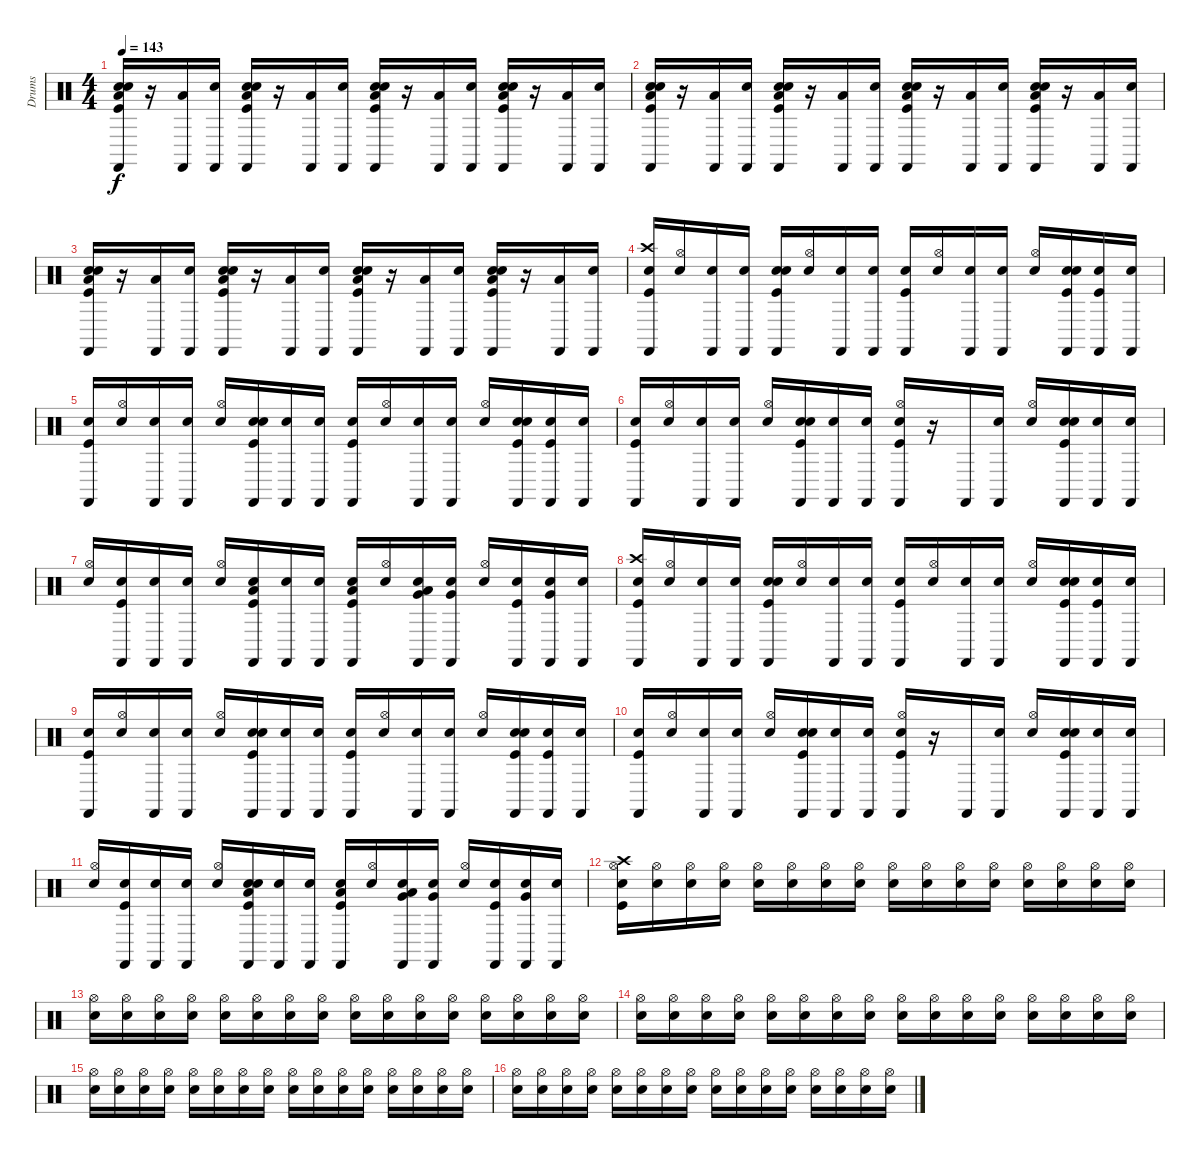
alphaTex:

\track ("Drums" "Drums") {instrument percussion}
\staff {score}
\articulation defaults
\ts (4 4)
\tempo 143
\clef neutral
\ks c
("Snare (hit)" "Low Tom (hit)" "Electric Snare (hit)" "Kick (hit)" "Castanets (hit)").16{dy f} r.16 ("Low Tom (hit)" "Castanets (hit)").16 ("Snare (hit)" "Castanets (hit)").16 ("Snare (hit)" "Low Tom (hit)" "Electric Snare (hit)" "Kick (hit)" "Castanets (hit)").16 r.16 ("Low Tom (hit)" "Castanets (hit)").16 ("Snare (hit)" "Castanets (hit)").16 ("Snare (hit)" "Low Tom (hit)" "Electric Snare (hit)" "Kick (hit)" "Castanets (hit)").16 r.16 ("Low Tom (hit)" "Castanets (hit)").16 ("Snare (hit)" "Castanets (hit)").16 ("Snare (hit)" "Low Tom (hit)" "Electric Snare (hit)" "Kick (hit)" "Castanets (hit)").16 r.16 ("Low Tom (hit)" "Castanets (hit)").16 ("Snare (hit)" "Castanets (hit)").16 |
("Snare (hit)" "Low Tom (hit)" "Electric Snare (hit)" "Kick (hit)" "Castanets (hit)").16 r.16 ("Low Tom (hit)" "Castanets (hit)").16 ("Snare (hit)" "Castanets (hit)").16 ("Snare (hit)" "Low Tom (hit)" "Electric Snare (hit)" "Kick (hit)" "Castanets (hit)").16 r.16 ("Low Tom (hit)" "Castanets (hit)").16 ("Snare (hit)" "Castanets (hit)").16 ("Snare (hit)" "Low Tom (hit)" "Electric Snare (hit)" "Kick (hit)" "Castanets (hit)").16 r.16 ("Low Tom (hit)" "Castanets (hit)").16 ("Snare (hit)" "Castanets (hit)").16 ("Snare (hit)" "Low Tom (hit)" "Electric Snare (hit)" "Kick (hit)" "Castanets (hit)").16 r.16 ("Low Tom (hit)" "Castanets (hit)").16 ("Snare (hit)" "Castanets (hit)").16 |
("Snare (hit)" "Low Tom (hit)" "Electric Snare (hit)" "Kick (hit)" "Castanets (hit)").16 r.16 ("Low Tom (hit)" "Castanets (hit)").16 ("Snare (hit)" "Castanets (hit)").16 ("Snare (hit)" "Low Tom (hit)" "Electric Snare (hit)" "Kick (hit)" "Castanets (hit)").16 r.16 ("Low Tom (hit)" "Castanets (hit)").16 ("Snare (hit)" "Castanets (hit)").16 ("Snare (hit)" "Low Tom (hit)" "Electric Snare (hit)" "Kick (hit)" "Castanets (hit)").16 r.16 ("Low Tom (hit)" "Castanets (hit)").16 ("Snare (hit)" "Castanets (hit)").16 ("Snare (hit)" "Low Tom (hit)" "Electric Snare (hit)" "Kick (hit)" "Castanets (hit)").16 r.16 ("Low Tom (hit)" "Castanets (hit)").16 ("Snare (hit)" "Castanets (hit)").16 |
("Snare (hit)" "Kick (hit)" "Crash high (hit)" "Castanets (hit)").16 ("Snare (hit)" "Hi-Hat (open)").16 ("Snare (hit)" "Castanets (hit)").16 ("Snare (hit)" "Castanets (hit)").16 ("Snare (hit)" "Electric Snare (hit)" "Kick (hit)" "Castanets (hit)").16 ("Snare (hit)" "Hi-Hat (open)").16 ("Snare (hit)" "Castanets (hit)").16 ("Snare (hit)" "Castanets (hit)").16 ("Snare (hit)" "Kick (hit)" "Castanets (hit)").16 ("Snare (hit)" "Hi-Hat (open)").16 ("Snare (hit)" "Castanets (hit)").16 ("Snare (hit)" "Castanets (hit)").16 ("Snare (hit)" "Hi-Hat (open)").16 ("Snare (hit)" "Electric Snare (hit)" "Kick (hit)" "Castanets (hit)").16 ("Snare (hit)" "Kick (hit)" "Castanets (hit)").16 ("Snare (hit)" "Castanets (hit)").16 |
("Snare (hit)" "Kick (hit)" "Castanets (hit)").16 ("Snare (hit)" "Hi-Hat (open)").16 ("Snare (hit)" "Castanets (hit)").16 ("Snare (hit)" "Castanets (hit)").16 ("Snare (hit)" "Hi-Hat (open)").16 ("Snare (hit)" "Electric Snare (hit)" "Kick (hit)" "Castanets (hit)").16 ("Snare (hit)" "Castanets (hit)").16 ("Snare (hit)" "Castanets (hit)").16 ("Snare (hit)" "Kick (hit)" "Castanets (hit)").16 ("Snare (hit)" "Hi-Hat (open)").16 ("Snare (hit)" "Castanets (hit)").16 ("Snare (hit)" "Castanets (hit)").16 ("Snare (hit)" "Hi-Hat (open)").16 ("Snare (hit)" "Electric Snare (hit)" "Kick (hit)" "Castanets (hit)").16 ("Snare (hit)" "Kick (hit)" "Castanets (hit)").16 ("Snare (hit)" "Castanets (hit)").16 |
("Snare (hit)" "Kick (hit)" "Castanets (hit)").16 ("Snare (hit)" "Hi-Hat (open)").16 ("Snare (hit)" "Castanets (hit)").16 ("Snare (hit)" "Castanets (hit)").16 ("Snare (hit)" "Hi-Hat (open)").16 ("Snare (hit)" "Electric Snare (hit)" "Kick (hit)" "Castanets (hit)").16 ("Snare (hit)" "Castanets (hit)").16 ("Snare (hit)" "Castanets (hit)").16 ("Snare (hit)" "Kick (hit)" "Castanets (hit)" "Hi-Hat (open)").16 r.16 "Castanets (hit)".16 ("Snare (hit)" "Castanets (hit)").16 ("Snare (hit)" "Hi-Hat (open)").16 ("Snare (hit)" "Electric Snare (hit)" "Kick (hit)" "Castanets (hit)").16 ("Snare (hit)" "Castanets (hit)").16 ("Snare (hit)" "Castanets (hit)").16 |
("Snare (hit)" "Hi-Hat (open)").16 ("Snare (hit)" "Kick (hit)" "Castanets (hit)").16 ("Snare (hit)" "Castanets (hit)").16 ("Snare (hit)" "Castanets (hit)").16 ("Snare (hit)" "Hi-Hat (open)").16 ("Snare (hit)" "Kick (hit)" "Low Tom (hit)" "Castanets (hit)").16 ("Snare (hit)" "Castanets (hit)").16 ("Snare (hit)" "Castanets (hit)").16 ("Snare (hit)" "Kick (hit)" "Low Tom (hit)" "Castanets (hit)").16 ("Snare (hit)" "Hi-Hat (open)").16 ("Snare (hit)" "Very Low Tom (hit)" "Low Tom (hit)" "Castanets (hit)").16 ("Snare (hit)" "Very Low Tom (hit)" "Castanets (hit)").16 ("Snare (hit)" "Hi-Hat (open)").16 ("Snare (hit)" "Kick (hit)" "Castanets (hit)").16 ("Snare (hit)" "Very Low Tom (hit)" "Castanets (hit)").16 ("Snare (hit)" "Castanets (hit)").16 |
("Snare (hit)" "Kick (hit)" "Crash high (hit)" "Castanets (hit)").16 ("Snare (hit)" "Hi-Hat (open)").16 ("Snare (hit)" "Castanets (hit)").16 ("Snare (hit)" "Castanets (hit)").16 ("Snare (hit)" "Electric Snare (hit)" "Kick (hit)" "Castanets (hit)").16 ("Snare (hit)" "Hi-Hat (open)").16 ("Snare (hit)" "Castanets (hit)").16 ("Snare (hit)" "Castanets (hit)").16 ("Snare (hit)" "Kick (hit)" "Castanets (hit)").16 ("Snare (hit)" "Hi-Hat (open)").16 ("Snare (hit)" "Castanets (hit)").16 ("Snare (hit)" "Castanets (hit)").16 ("Snare (hit)" "Hi-Hat (open)").16 ("Snare (hit)" "Electric Snare (hit)" "Kick (hit)" "Castanets (hit)").16 ("Snare (hit)" "Kick (hit)" "Castanets (hit)").16 ("Snare (hit)" "Castanets (hit)").16 |
("Snare (hit)" "Kick (hit)" "Castanets (hit)").16 ("Snare (hit)" "Hi-Hat (open)").16 ("Snare (hit)" "Castanets (hit)").16 ("Snare (hit)" "Castanets (hit)").16 ("Snare (hit)" "Hi-Hat (open)").16 ("Snare (hit)" "Electric Snare (hit)" "Kick (hit)" "Castanets (hit)").16 ("Snare (hit)" "Castanets (hit)").16 ("Snare (hit)" "Castanets (hit)").16 ("Snare (hit)" "Kick (hit)" "Castanets (hit)").16 ("Snare (hit)" "Hi-Hat (open)").16 ("Snare (hit)" "Castanets (hit)").16 ("Snare (hit)" "Castanets (hit)").16 ("Snare (hit)" "Hi-Hat (open)").16 ("Snare (hit)" "Electric Snare (hit)" "Kick (hit)" "Castanets (hit)").16 ("Snare (hit)" "Kick (hit)" "Castanets (hit)").16 ("Snare (hit)" "Castanets (hit)").16 |
("Snare (hit)" "Kick (hit)" "Castanets (hit)").16 ("Snare (hit)" "Hi-Hat (open)").16 ("Snare (hit)" "Castanets (hit)").16 ("Snare (hit)" "Castanets (hit)").16 ("Snare (hit)" "Hi-Hat (open)").16 ("Snare (hit)" "Electric Snare (hit)" "Kick (hit)" "Castanets (hit)").16 ("Snare (hit)" "Castanets (hit)").16 ("Snare (hit)" "Castanets (hit)").16 ("Snare (hit)" "Kick (hit)" "Castanets (hit)" "Hi-Hat (open)").16 r.16 "Castanets (hit)".16 ("Snare (hit)" "Castanets (hit)").16 ("Snare (hit)" "Hi-Hat (open)").16 ("Snare (hit)" "Electric Snare (hit)" "Kick (hit)" "Castanets (hit)").16 ("Snare (hit)" "Castanets (hit)").16 ("Snare (hit)" "Castanets (hit)").16 |
("Snare (hit)" "Hi-Hat (open)").16 ("Snare (hit)" "Kick (hit)" "Castanets (hit)").16 ("Snare (hit)" "Castanets (hit)").16 ("Snare (hit)" "Castanets (hit)").16 ("Snare (hit)" "Hi-Hat (open)").16 ("Snare (hit)" "Electric Snare (hit)" "Kick (hit)" "Low Tom (hit)" "Castanets (hit)").16 ("Snare (hit)" "Castanets (hit)").16 ("Snare (hit)" "Castanets (hit)").16 ("Snare (hit)" "Kick (hit)" "Low Tom (hit)" "Castanets (hit)").16 ("Snare (hit)" "Hi-Hat (open)").16 ("Snare (hit)" "Very Low Tom (hit)" "Low Tom (hit)" "Castanets (hit)").16 ("Snare (hit)" "Very Low Tom (hit)" "Castanets (hit)").16 ("Snare (hit)" "Hi-Hat (open)").16 ("Snare (hit)" "Kick (hit)" "Castanets (hit)").16 ("Snare (hit)" "Very Low Tom (hit)" "Castanets (hit)").16 ("Snare (hit)" "Castanets (hit)").16 |
("Snare (hit)" "Kick (hit)" "Crash high (hit)" "Hi-Hat (open)").16 ("Snare (hit)" "Hi-Hat (open)").16 ("Snare (hit)" "Hi-Hat (open)").16 ("Snare (hit)" "Hi-Hat (open)").16 ("Snare (hit)" "Hi-Hat (open)").16 ("Snare (hit)" "Hi-Hat (open)").16 ("Snare (hit)" "Hi-Hat (open)").16 ("Snare (hit)" "Hi-Hat (open)").16 ("Snare (hit)" "Hi-Hat (open)").16 ("Snare (hit)" "Hi-Hat (open)").16 ("Snare (hit)" "Hi-Hat (open)").16 ("Snare (hit)" "Hi-Hat (open)").16 ("Snare (hit)" "Hi-Hat (open)").16 ("Snare (hit)" "Hi-Hat (open)").16 ("Snare (hit)" "Hi-Hat (open)").16 ("Snare (hit)" "Hi-Hat (open)").16 |
("Snare (hit)" "Hi-Hat (open)").16 ("Snare (hit)" "Hi-Hat (open)").16 ("Snare (hit)" "Hi-Hat (open)").16 ("Snare (hit)" "Hi-Hat (open)").16 ("Snare (hit)" "Hi-Hat (open)").16 ("Snare (hit)" "Hi-Hat (open)").16 ("Snare (hit)" "Hi-Hat (open)").16 ("Snare (hit)" "Hi-Hat (open)").16 ("Snare (hit)" "Hi-Hat (open)").16 ("Snare (hit)" "Hi-Hat (open)").16 ("Snare (hit)" "Hi-Hat (open)").16 ("Snare (hit)" "Hi-Hat (open)").16 ("Snare (hit)" "Hi-Hat (open)").16 ("Snare (hit)" "Hi-Hat (open)").16 ("Snare (hit)" "Hi-Hat (open)").16 ("Snare (hit)" "Hi-Hat (open)").16 |
("Snare (hit)" "Hi-Hat (open)").16 ("Snare (hit)" "Hi-Hat (open)").16 ("Snare (hit)" "Hi-Hat (open)").16 ("Snare (hit)" "Hi-Hat (open)").16 ("Snare (hit)" "Hi-Hat (open)").16 ("Snare (hit)" "Hi-Hat (open)").16 ("Snare (hit)" "Hi-Hat (open)").16 ("Snare (hit)" "Hi-Hat (open)").16 ("Snare (hit)" "Hi-Hat (open)").16 ("Snare (hit)" "Hi-Hat (open)").16 ("Snare (hit)" "Hi-Hat (open)").16 ("Snare (hit)" "Hi-Hat (open)").16 ("Snare (hit)" "Hi-Hat (open)").16 ("Snare (hit)" "Hi-Hat (open)").16 ("Snare (hit)" "Hi-Hat (open)").16 ("Snare (hit)" "Hi-Hat (open)").16 |
("Snare (hit)" "Hi-Hat (open)").16 ("Snare (hit)" "Hi-Hat (open)").16 ("Snare (hit)" "Hi-Hat (open)").16 ("Snare (hit)" "Hi-Hat (open)").16 ("Snare (hit)" "Hi-Hat (open)").16 ("Snare (hit)" "Hi-Hat (open)").16 ("Snare (hit)" "Hi-Hat (open)").16 ("Snare (hit)" "Hi-Hat (open)").16 ("Snare (hit)" "Hi-Hat (open)").16 ("Snare (hit)" "Hi-Hat (open)").16 ("Snare (hit)" "Hi-Hat (open)").16 ("Snare (hit)" "Hi-Hat (open)").16 ("Snare (hit)" "Hi-Hat (open)").16 ("Snare (hit)" "Hi-Hat (open)").16 ("Snare (hit)" "Hi-Hat (open)").16 ("Snare (hit)" "Hi-Hat (open)").16 |
("Snare (hit)" "Hi-Hat (open)").16 ("Snare (hit)" "Hi-Hat (open)").16 ("Snare (hit)" "Hi-Hat (open)").16 ("Snare (hit)" "Hi-Hat (open)").16 ("Snare (hit)" "Hi-Hat (open)").16 ("Snare (hit)" "Hi-Hat (open)").16 ("Snare (hit)" "Hi-Hat (open)").16 ("Snare (hit)" "Hi-Hat (open)").16 ("Snare (hit)" "Hi-Hat (open)").16 ("Snare (hit)" "Hi-Hat (open)").16 ("Snare (hit)" "Hi-Hat (open)").16 ("Snare (hit)" "Hi-Hat (open)").16 ("Snare (hit)" "Hi-Hat (open)").16 ("Snare (hit)" "Hi-Hat (open)").16 ("Snare (hit)" "Hi-Hat (open)").16 ("Snare (hit)" "Hi-Hat (open)").16
